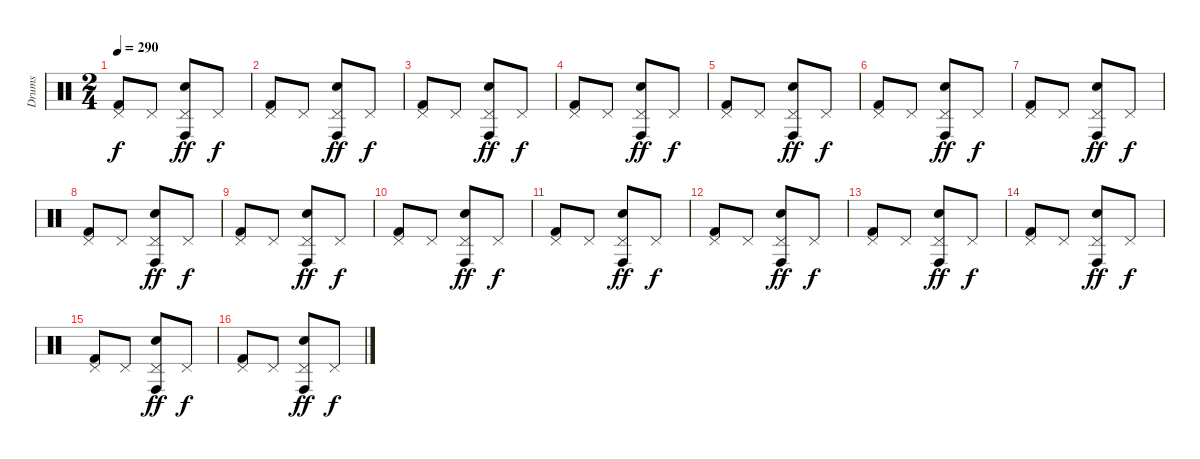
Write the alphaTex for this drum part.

\track ("Drums" "Drums") {instrument percussion}
\staff {score}
\articulation defaults
\ts (2 4)
\tempo 290
\clef neutral
\ks c
("Pedal Hi-Hat (hit)" "Kick (hit) 2").8{dy f} "Pedal Hi-Hat (hit)".8 ("Pedal Hi-Hat (hit)" "Conga high (hit)" "Electric Snare (hit)").8{dy ff} "Pedal Hi-Hat (hit)".8{dy f} |
("Pedal Hi-Hat (hit)" "Kick (hit) 2").8 "Pedal Hi-Hat (hit)".8 ("Pedal Hi-Hat (hit)" "Conga high (hit)" "Electric Snare (hit)").8{dy ff} "Pedal Hi-Hat (hit)".8{dy f} |
("Pedal Hi-Hat (hit)" "Kick (hit) 2").8 "Pedal Hi-Hat (hit)".8 ("Pedal Hi-Hat (hit)" "Conga high (hit)" "Electric Snare (hit)").8{dy ff} "Pedal Hi-Hat (hit)".8{dy f} |
("Pedal Hi-Hat (hit)" "Kick (hit) 2").8 "Pedal Hi-Hat (hit)".8 ("Pedal Hi-Hat (hit)" "Conga high (hit)" "Electric Snare (hit)").8{dy ff} "Pedal Hi-Hat (hit)".8{dy f} |
("Pedal Hi-Hat (hit)" "Kick (hit) 2").8 "Pedal Hi-Hat (hit)".8 ("Pedal Hi-Hat (hit)" "Conga high (hit)" "Electric Snare (hit)").8{dy ff} "Pedal Hi-Hat (hit)".8{dy f} |
("Pedal Hi-Hat (hit)" "Kick (hit) 2").8 "Pedal Hi-Hat (hit)".8 ("Pedal Hi-Hat (hit)" "Conga high (hit)" "Electric Snare (hit)").8{dy ff} "Pedal Hi-Hat (hit)".8{dy f} |
("Pedal Hi-Hat (hit)" "Kick (hit) 2").8 "Pedal Hi-Hat (hit)".8 ("Pedal Hi-Hat (hit)" "Conga high (hit)" "Electric Snare (hit)").8{dy ff} "Pedal Hi-Hat (hit)".8{dy f} |
("Pedal Hi-Hat (hit)" "Kick (hit) 2").8 "Pedal Hi-Hat (hit)".8 ("Pedal Hi-Hat (hit)" "Conga high (hit)" "Electric Snare (hit)").8{dy ff} "Pedal Hi-Hat (hit)".8{dy f} |
("Pedal Hi-Hat (hit)" "Kick (hit) 2").8 "Pedal Hi-Hat (hit)".8 ("Pedal Hi-Hat (hit)" "Conga high (hit)" "Electric Snare (hit)").8{dy ff} "Pedal Hi-Hat (hit)".8{dy f} |
("Pedal Hi-Hat (hit)" "Kick (hit) 2").8 "Pedal Hi-Hat (hit)".8 ("Pedal Hi-Hat (hit)" "Conga high (hit)" "Electric Snare (hit)").8{dy ff} "Pedal Hi-Hat (hit)".8{dy f} |
("Pedal Hi-Hat (hit)" "Kick (hit) 2").8 "Pedal Hi-Hat (hit)".8 ("Pedal Hi-Hat (hit)" "Conga high (hit)" "Electric Snare (hit)").8{dy ff} "Pedal Hi-Hat (hit)".8{dy f} |
("Pedal Hi-Hat (hit)" "Kick (hit) 2").8 "Pedal Hi-Hat (hit)".8 ("Pedal Hi-Hat (hit)" "Conga high (hit)" "Electric Snare (hit)").8{dy ff} "Pedal Hi-Hat (hit)".8{dy f} |
("Pedal Hi-Hat (hit)" "Kick (hit) 2").8 "Pedal Hi-Hat (hit)".8 ("Pedal Hi-Hat (hit)" "Conga high (hit)" "Electric Snare (hit)").8{dy ff} "Pedal Hi-Hat (hit)".8{dy f} |
("Pedal Hi-Hat (hit)" "Kick (hit) 2").8 "Pedal Hi-Hat (hit)".8 ("Pedal Hi-Hat (hit)" "Conga high (hit)" "Electric Snare (hit)").8{dy ff} "Pedal Hi-Hat (hit)".8{dy f} |
("Pedal Hi-Hat (hit)" "Kick (hit) 2").8 "Pedal Hi-Hat (hit)".8 ("Pedal Hi-Hat (hit)" "Conga high (hit)" "Electric Snare (hit)").8{dy ff} "Pedal Hi-Hat (hit)".8{dy f} |
("Pedal Hi-Hat (hit)" "Kick (hit) 2").8 "Pedal Hi-Hat (hit)".8 ("Pedal Hi-Hat (hit)" "Conga high (hit)" "Electric Snare (hit)").8{dy ff} "Pedal Hi-Hat (hit)".8{dy f}
